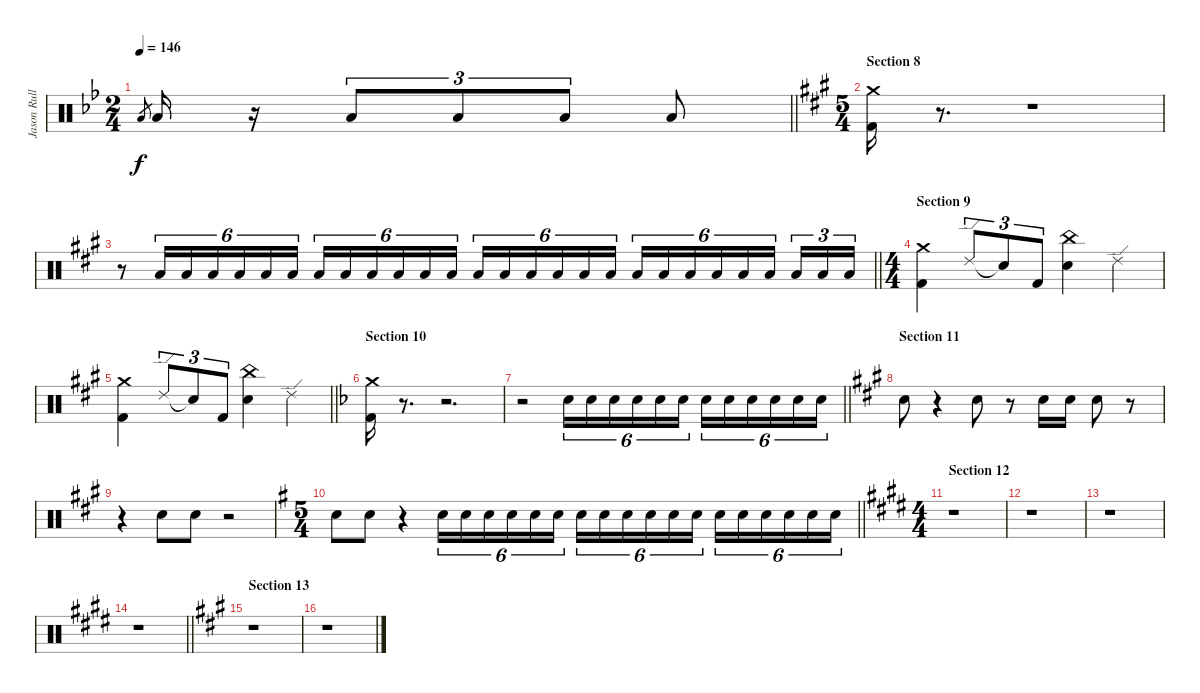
\track ("Jason Rullo (drums)" "Jason Rull") {instrument percussion}
\staff {score}
\articulation defaults
\ts (2 4)
\tempo 146
\clef neutral
\barLineRight lightlight
\ks gminor "Low Tom (hit)".8{gr dy f} "Low Tom (hit)".16
r.16 "Low Tom (hit)".8{tu (3 2)} "Low Tom (hit)".8{tu (3 2)} "Low Tom (hit)".8{tu (3 2)} "Low Tom (hit)".8 |
\ts (5 4)
\section ("" "Section 8")
\ks f#minor
("Crash medium (hit)" "Kick (hit) 2").16 r.8{d} r.1 |
\barLineRight lightlight
r.8 "Low Floor Tom (hit)".16{tu (6 4) volume 2} "Low Floor Tom (hit)".16{tu (6 4) volume 2} "Low Floor Tom (hit)".16{tu (6 4) volume 3} "Low Floor Tom (hit)".16{tu (6 4) volume 3} "Low Floor Tom (hit)".16{tu (6 4) volume 4} "Low Floor Tom (hit)".16{tu (6 4) volume 4 beam splitsecondary} "Low Floor Tom (hit)".16{tu (6 4) volume 5} "Low Floor Tom (hit)".16{tu (6 4) volume 5} "Low Floor Tom (hit)".16{tu (6 4) volume 6} "Low Floor Tom (hit)".16{tu (6 4) volume 6} "Low Floor Tom (hit)".16{tu (6 4) volume 7} "Low Floor Tom (hit)".16{tu (6 4) volume 7 beam splitsecondary} "Low Floor Tom (hit)".16{tu (6 4) volume 8} "Low Floor Tom (hit)".16{tu (6 4) volume 8} "Low Floor Tom (hit)".16{tu (6 4) volume 9} "Low Floor Tom (hit)".16{tu (6 4) volume 10} "Low Floor Tom (hit)".16{tu (6 4) volume 10} "Low Floor Tom (hit)".16{tu (6 4) volume 11 beam splitsecondary} "Low Floor Tom (hit)".16{tu (6 4) volume 11} "Low Floor Tom (hit)".16{tu (6 4) volume 12} "Low Floor Tom (hit)".16{tu (6 4) volume 12} "Low Floor Tom (hit)".16{tu (6 4) volume 13} "Low Floor Tom (hit)".16{tu (6 4) volume 13} "Low Floor Tom (hit)".16{tu (6 4) volume 14 beam splitsecondary} "Low Floor Tom (hit)".16{tu (3 2) volume 14} "Low Floor Tom (hit)".16{tu (3 2) volume 15} "Low Floor Tom (hit)".16{tu (3 2) volume 15} |
\ts (4 4)
\section ("" "Section 9")
("Crash medium (hit)" "Kick (hit) 2").4{volume 16} "Ride (edge) 2".8{tu (3 2)} "Snare (hit)"{t}.8{tu (3 2)} "Kick (hit) 2".8{tu (3 2)} ("China (hit)" "Electric Snare (hit)").4 "Ride (edge) 2".4 |
\barLineRight lightlight
("Crash medium (hit)" "Kick (hit) 2").4 "Ride (edge) 2".8{tu (3 2)} "Snare (hit)"{t}.8{tu (3 2)} "Kick (hit) 2".8{tu (3 2)} ("China (hit)" "Electric Snare (hit)").4 "Ride (edge) 2".4 |
\section ("" "Section 10")
\ks dminor
("Crash medium (hit)" "Kick (hit) 2").16 r.8{d} r.2{d} |
\barLineRight lightlight
r.2 "Electric Snare (hit)".16{tu (6 4) volume 0} "Electric Snare (hit)".16{tu (6 4) volume 1} "Electric Snare (hit)".16{tu (6 4) volume 3} "Electric Snare (hit)".16{tu (6 4) volume 4} "Electric Snare (hit)".16{tu (6 4) volume 5} "Electric Snare (hit)".16{tu (6 4) volume 7} "Electric Snare (hit)".16{tu (6 4) volume 8} "Electric Snare (hit)".16{tu (6 4) volume 9} "Electric Snare (hit)".16{tu (6 4) volume 11} "Electric Snare (hit)".16{tu (6 4) volume 12} "Electric Snare (hit)".16{tu (6 4) volume 13} "Electric Snare (hit)".16{tu (6 4) volume 15} |
\section ("" "Section 11")
\ks f#minor "Electric Snare (hit)".8{volume 16}
r.4 "Electric Snare (hit)".8 r.8 "Electric Snare (hit)".16 "Electric Snare (hit)".16 "Electric Snare (hit)".8 r.8 |
r.4 "Electric Snare (hit)".8 "Electric Snare (hit)".8 r.2 |
\ts (5 4)
\barLineRight lightlight
\ks eminor "Electric Snare (hit)".8 "Electric Snare (hit)".8
r.4 "Electric Snare (hit)".16{tu (6 4) volume 0} "Electric Snare (hit)".16{tu (6 4) volume 1} "Electric Snare (hit)".16{tu (6 4) volume 2} "Electric Snare (hit)".16{tu (6 4) volume 2} "Electric Snare (hit)".16{tu (6 4) volume 3} "Electric Snare (hit)".16{tu (6 4) volume 4} "Electric Snare (hit)".16{tu (6 4) volume 5} "Electric Snare (hit)".16{tu (6 4) volume 6} "Electric Snare (hit)".16{tu (6 4) volume 7} "Electric Snare (hit)".16{tu (6 4) volume 8} "Electric Snare (hit)".16{tu (6 4) volume 8} "Electric Snare (hit)".16{tu (6 4) volume 9} "Electric Snare (hit)".16{tu (6 4) volume 10} "Electric Snare (hit)".16{tu (6 4) volume 11} "Electric Snare (hit)".16{tu (6 4) volume 12} "Electric Snare (hit)".16{tu (6 4) volume 12} "Electric Snare (hit)".16{tu (6 4) volume 13} "Electric Snare (hit)".16{tu (6 4) volume 14} |
\ts (4 4)
\section ("" "Section 12")
\ks c#minor
r.1 |
r.1 |
r.1 |
\barLineRight lightlight
r.1 |
\section ("" "Section 13")
\ks f#minor
r.1 |
r.1
